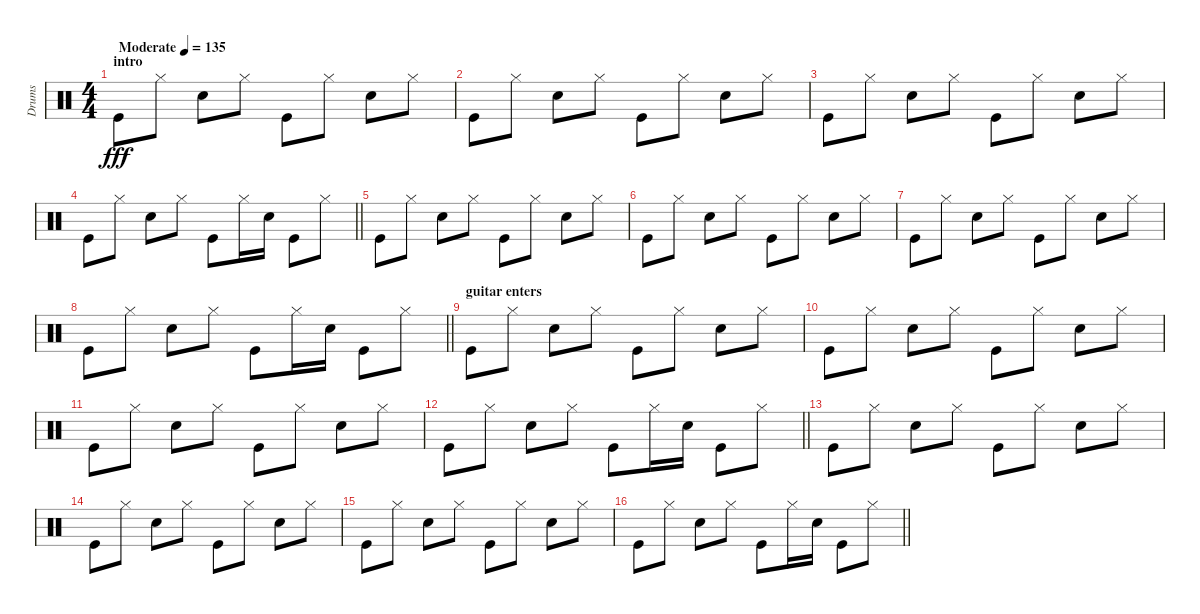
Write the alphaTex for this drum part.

\track ("Drums" "Drums") {instrument percussion}
\staff {score}
\articulation defaults
\ts (4 4)
\section ("" "intro")
\tempo (135 "Moderate")
\clef neutral
\ks c "Kick (hit)".8{dy fff} "Hi-Hat (closed)".8 "Electric Snare (hit)".8 "Hi-Hat (closed)".8 "Kick (hit)".8 "Hi-Hat (closed)".8 "Electric Snare (hit)".8 "Hi-Hat (closed)".8
|
"Kick (hit)".8 "Hi-Hat (closed)".8 "Electric Snare (hit)".8 "Hi-Hat (closed)".8 "Kick (hit)".8 "Hi-Hat (closed)".8 "Electric Snare (hit)".8 "Hi-Hat (closed)".8 |
"Kick (hit)".8 "Hi-Hat (closed)".8 "Electric Snare (hit)".8 "Hi-Hat (closed)".8 "Kick (hit)".8 "Hi-Hat (closed)".8 "Electric Snare (hit)".8 "Hi-Hat (closed)".8 |
\barLineRight lightlight "Kick (hit)".8 "Hi-Hat (closed)".8 "Electric Snare (hit)".8 "Hi-Hat (closed)".8 "Kick (hit)".8 "Hi-Hat (closed)".16 "Electric Snare (hit)".16 "Kick (hit)".8 "Hi-Hat (closed)".8
|
"Kick (hit)".8 "Hi-Hat (closed)".8 "Electric Snare (hit)".8 "Hi-Hat (closed)".8 "Kick (hit)".8 "Hi-Hat (closed)".8 "Electric Snare (hit)".8 "Hi-Hat (closed)".8 |
"Kick (hit)".8 "Hi-Hat (closed)".8 "Electric Snare (hit)".8 "Hi-Hat (closed)".8 "Kick (hit)".8 "Hi-Hat (closed)".8 "Electric Snare (hit)".8 "Hi-Hat (closed)".8 |
"Kick (hit)".8 "Hi-Hat (closed)".8 "Electric Snare (hit)".8 "Hi-Hat (closed)".8 "Kick (hit)".8 "Hi-Hat (closed)".8 "Electric Snare (hit)".8 "Hi-Hat (closed)".8 |
\barLineRight lightlight "Kick (hit)".8 "Hi-Hat (closed)".8 "Electric Snare (hit)".8 "Hi-Hat (closed)".8 "Kick (hit)".8 "Hi-Hat (closed)".16 "Electric Snare (hit)".16 "Kick (hit)".8 "Hi-Hat (closed)".8
|
\section ("" "guitar enters")
"Kick (hit)".8 "Hi-Hat (closed)".8 "Electric Snare (hit)".8 "Hi-Hat (closed)".8 "Kick (hit)".8 "Hi-Hat (closed)".8 "Electric Snare (hit)".8 "Hi-Hat (closed)".8 |
"Kick (hit)".8 "Hi-Hat (closed)".8 "Electric Snare (hit)".8 "Hi-Hat (closed)".8 "Kick (hit)".8 "Hi-Hat (closed)".8 "Electric Snare (hit)".8 "Hi-Hat (closed)".8 |
"Kick (hit)".8 "Hi-Hat (closed)".8 "Electric Snare (hit)".8 "Hi-Hat (closed)".8 "Kick (hit)".8 "Hi-Hat (closed)".8 "Electric Snare (hit)".8 "Hi-Hat (closed)".8 |
\barLineRight lightlight "Kick (hit)".8 "Hi-Hat (closed)".8 "Electric Snare (hit)".8 "Hi-Hat (closed)".8 "Kick (hit)".8 "Hi-Hat (closed)".16 "Electric Snare (hit)".16 "Kick (hit)".8 "Hi-Hat (closed)".8
|
"Kick (hit)".8 "Hi-Hat (closed)".8 "Electric Snare (hit)".8 "Hi-Hat (closed)".8 "Kick (hit)".8 "Hi-Hat (closed)".8 "Electric Snare (hit)".8 "Hi-Hat (closed)".8 |
"Kick (hit)".8 "Hi-Hat (closed)".8 "Electric Snare (hit)".8 "Hi-Hat (closed)".8 "Kick (hit)".8 "Hi-Hat (closed)".8 "Electric Snare (hit)".8 "Hi-Hat (closed)".8 |
"Kick (hit)".8 "Hi-Hat (closed)".8 "Electric Snare (hit)".8 "Hi-Hat (closed)".8 "Kick (hit)".8 "Hi-Hat (closed)".8 "Electric Snare (hit)".8 "Hi-Hat (closed)".8 |
\barLineRight lightlight "Kick (hit)".8 "Hi-Hat (closed)".8 "Electric Snare (hit)".8 "Hi-Hat (closed)".8 "Kick (hit)".8 "Hi-Hat (closed)".16 "Electric Snare (hit)".16 "Kick (hit)".8 "Hi-Hat (closed)".8
